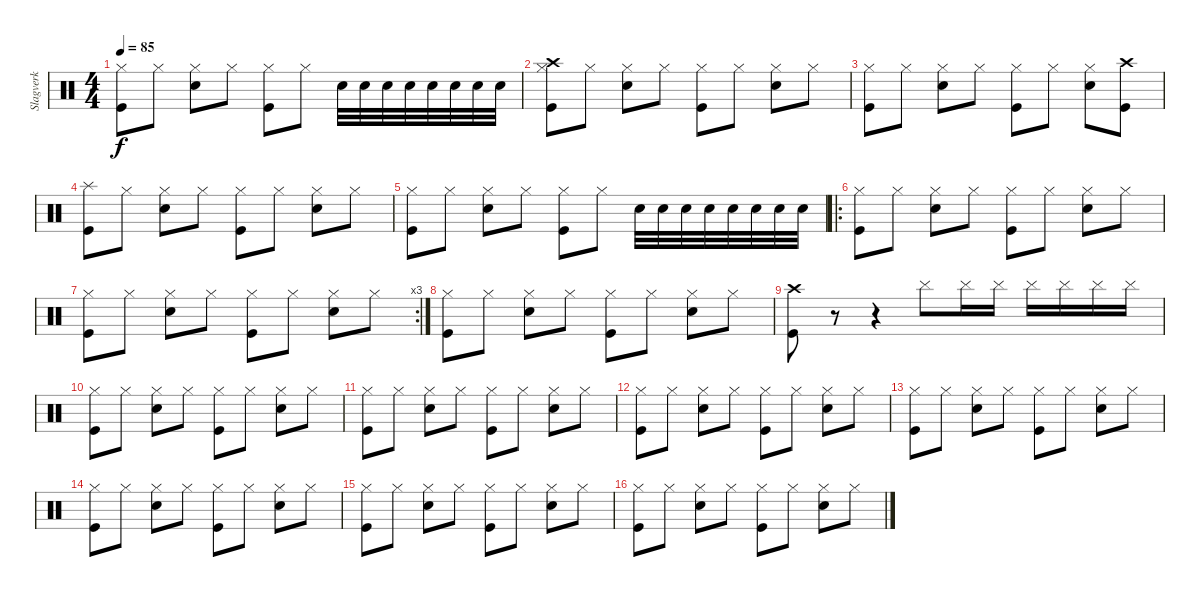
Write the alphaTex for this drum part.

\track ("Slagverk" "Slagverk") {instrument percussion}
\staff {score}
\articulation defaults
\ts (4 4)
\tempo 85
\clef neutral
\ks c
("Hi-Hat (closed)" "Kick (hit)").8{dy f} "Hi-Hat (closed)".8 ("Hi-Hat (closed)" "Electric Snare (hit)").8 "Hi-Hat (closed)".8 ("Hi-Hat (closed)" "Kick (hit)").8 "Hi-Hat (closed)".8 "Electric Snare (hit)".32 "Snare (hit) 2".32 "Electric Snare (hit)".32 "Electric Snare (hit)".32 "Snare (hit) 2".32 "Electric Snare (hit)".32 "Electric Snare (hit)".32 "Snare (hit) 2".32 |
("Hi-Hat (closed)" "Kick (hit)" "Crash high (hit)").8 "Hi-Hat (closed)".8 ("Hi-Hat (closed)" "Electric Snare (hit)").8 "Hi-Hat (closed)".8 ("Hi-Hat (closed)" "Kick (hit)").8 "Hi-Hat (closed)".8 ("Hi-Hat (closed)" "Electric Snare (hit)").8 "Hi-Hat (closed)".8 |
("Hi-Hat (closed)" "Kick (hit)").8 "Hi-Hat (closed)".8 ("Hi-Hat (closed)" "Electric Snare (hit)").8 "Hi-Hat (closed)".8 ("Hi-Hat (closed)" "Kick (hit)").8 "Hi-Hat (closed)".8 ("Hi-Hat (closed)" "Electric Snare (hit)").8 ("Crash high (hit)" "Kick (hit)").8 |
("Splash (hit)" "Kick (hit)").8 "Hi-Hat (closed)".8 ("Hi-Hat (closed)" "Electric Snare (hit)").8 "Hi-Hat (closed)".8 ("Hi-Hat (closed)" "Kick (hit)").8 "Hi-Hat (closed)".8 ("Hi-Hat (closed)" "Electric Snare (hit)").8 "Hi-Hat (closed)".8 |
("Hi-Hat (closed)" "Kick (hit)").8 "Hi-Hat (closed)".8 ("Hi-Hat (closed)" "Electric Snare (hit)").8 "Hi-Hat (closed)".8 ("Hi-Hat (closed)" "Kick (hit)").8 "Hi-Hat (closed)".8 "Electric Snare (hit)".32 "Snare (hit) 2".32 "Electric Snare (hit)".32 "Electric Snare (hit)".32 "Snare (hit) 2".32 "Electric Snare (hit)".32 "Electric Snare (hit)".32 "Snare (hit) 2".32 |
\ro
("Hi-Hat (closed)" "Kick (hit)").8 "Hi-Hat (closed)".8 ("Hi-Hat (closed)" "Electric Snare (hit)").8 "Hi-Hat (closed)".8 ("Hi-Hat (closed)" "Kick (hit)").8 "Hi-Hat (closed)".8 ("Hi-Hat (closed)" "Electric Snare (hit)").8 "Hi-Hat (closed)".8 |
\rc 3
("Hi-Hat (closed)" "Kick (hit)").8 "Hi-Hat (closed)".8 ("Hi-Hat (closed)" "Electric Snare (hit)").8 "Hi-Hat (closed)".8 ("Hi-Hat (closed)" "Kick (hit)").8 "Hi-Hat (closed)".8 ("Hi-Hat (closed)" "Electric Snare (hit)").8 "Hi-Hat (closed)".8 |
("Hi-Hat (closed)" "Kick (hit)").8 "Hi-Hat (closed)".8 ("Hi-Hat (closed)" "Electric Snare (hit)").8 "Hi-Hat (closed)".8 ("Hi-Hat (closed)" "Kick (hit)").8 "Hi-Hat (closed)".8 ("Hi-Hat (closed)" "Electric Snare (hit)").8 "Hi-Hat (closed)".8 |
("Crash high (hit)" "Kick (hit)").8 r.8 r.4 "Cymbal (hit)".8 "Cymbal (hit)".16 "Cymbal (hit)".16 "Cymbal (hit)".16 "Cymbal (hit)".16 "Cymbal (hit)".16 "Cymbal (hit)".16 |
("Hi-Hat (closed)" "Kick (hit)").8 "Hi-Hat (closed)".8 ("Hi-Hat (closed)" "Electric Snare (hit)").8 "Hi-Hat (closed)".8 ("Hi-Hat (closed)" "Kick (hit)").8 "Hi-Hat (closed)".8 ("Hi-Hat (closed)" "Electric Snare (hit)").8 "Hi-Hat (closed)".8 |
("Hi-Hat (closed)" "Kick (hit)").8 "Hi-Hat (closed)".8 ("Hi-Hat (closed)" "Electric Snare (hit)").8 "Hi-Hat (closed)".8 ("Hi-Hat (closed)" "Kick (hit)").8 "Hi-Hat (closed)".8 ("Hi-Hat (closed)" "Electric Snare (hit)").8 "Hi-Hat (closed)".8 |
("Hi-Hat (closed)" "Kick (hit)").8 "Hi-Hat (closed)".8 ("Hi-Hat (closed)" "Electric Snare (hit)").8 "Hi-Hat (closed)".8 ("Hi-Hat (closed)" "Kick (hit)").8 "Hi-Hat (closed)".8 ("Hi-Hat (closed)" "Electric Snare (hit)").8 "Hi-Hat (closed)".8 |
("Hi-Hat (closed)" "Kick (hit)").8 "Hi-Hat (closed)".8 ("Hi-Hat (closed)" "Electric Snare (hit)").8 "Hi-Hat (closed)".8 ("Hi-Hat (closed)" "Kick (hit)").8 "Hi-Hat (closed)".8 ("Hi-Hat (closed)" "Electric Snare (hit)").8 "Hi-Hat (closed)".8 |
("Hi-Hat (closed)" "Kick (hit)").8 "Hi-Hat (closed)".8 ("Hi-Hat (closed)" "Electric Snare (hit)").8 "Hi-Hat (closed)".8 ("Hi-Hat (closed)" "Kick (hit)").8 "Hi-Hat (closed)".8 ("Hi-Hat (closed)" "Electric Snare (hit)").8 "Hi-Hat (closed)".8 |
("Hi-Hat (closed)" "Kick (hit)").8 "Hi-Hat (closed)".8 ("Hi-Hat (closed)" "Electric Snare (hit)").8 "Hi-Hat (closed)".8 ("Hi-Hat (closed)" "Kick (hit)").8 "Hi-Hat (closed)".8 ("Hi-Hat (closed)" "Electric Snare (hit)").8 "Hi-Hat (closed)".8 |
("Hi-Hat (closed)" "Kick (hit)").8 "Hi-Hat (closed)".8 ("Hi-Hat (closed)" "Electric Snare (hit)").8 "Hi-Hat (closed)".8 ("Hi-Hat (closed)" "Kick (hit)").8 "Hi-Hat (closed)".8 ("Hi-Hat (closed)" "Electric Snare (hit)").8 "Hi-Hat (closed)".8
